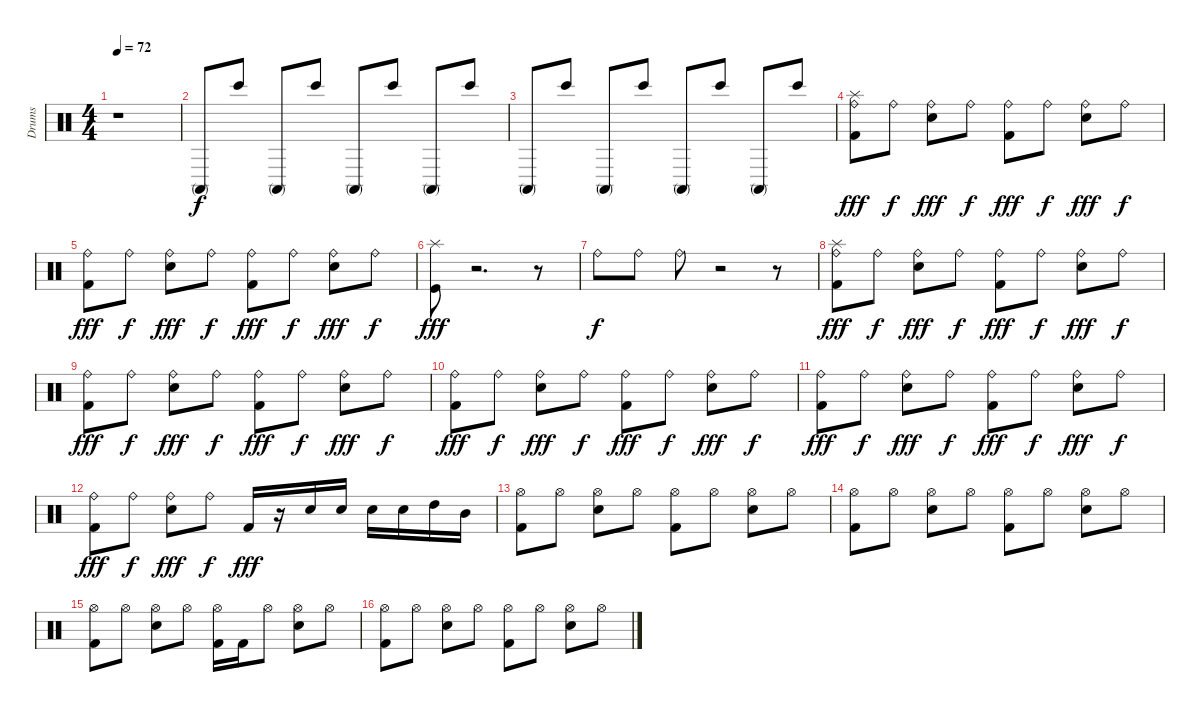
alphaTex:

\track ("Drums" "Drums") {instrument percussion}
\staff {score}
\articulation defaults
\ts (4 4)
\tempo 72
\clef neutral
\ks c
r.1{dy f} |
"Conga high (mute)".8 "Bongo High (hit)".8 "Conga high (mute)".8 "Bongo High (hit)".8 "Conga high (mute)".8 "Bongo High (hit)".8 "Conga high (mute)".8 "Bongo High (hit)".8 |
"Conga high (mute)".8 "Bongo High (hit)".8 "Conga high (mute)".8 "Bongo High (hit)".8 "Conga high (mute)".8 "Bongo High (hit)".8 "Conga high (mute)".8{volume 5} "Bongo High (hit)".8{volume 12} |
("Ride (bell)" "Splash (hit)" "Kick (hit) 2").8{dy fff volume 16} "Ride (bell)".8{dy f} ("Ride (bell)" "Snare (hit) 2").8{dy fff} "Ride (bell)".8{dy f} ("Ride (bell)" "Kick (hit) 2").8{dy fff} "Ride (bell)".8{dy f} ("Ride (bell)" "Snare (hit) 2").8{dy fff} "Ride (bell)".8{dy f} |
("Ride (bell)" "Kick (hit) 2").8{dy fff} "Ride (bell)".8{dy f} ("Ride (bell)" "Snare (hit) 2").8{dy fff} "Ride (bell)".8{dy f} ("Ride (bell)" "Kick (hit) 2").8{dy fff} "Ride (bell)".8{dy f} ("Ride (bell)" "Snare (hit) 2").8{dy fff} "Ride (bell)".8{dy f} |
("Splash (hit)" "Kick (hit)").8{dy fff} r.2{d} r.8 |
"Ride (bell)".8{dy f} "Ride (bell)".8 "Ride (bell)".8 r.2 r.8 |
("Splash (hit)" "Ride (bell)" "Kick (hit) 2").8{dy fff} "Ride (bell)".8{dy f} ("Ride (bell)" "Snare (hit) 2").8{dy fff} "Ride (bell)".8{dy f} ("Ride (bell)" "Kick (hit) 2").8{dy fff} "Ride (bell)".8{dy f} ("Ride (bell)" "Snare (hit) 2").8{dy fff} "Ride (bell)".8{dy f} |
("Ride (bell)" "Kick (hit) 2").8{dy fff} "Ride (bell)".8{dy f} ("Ride (bell)" "Snare (hit) 2").8{dy fff} "Ride (bell)".8{dy f} ("Ride (bell)" "Kick (hit) 2").8{dy fff} "Ride (bell)".8{dy f} ("Ride (bell)" "Snare (hit) 2").8{dy fff} "Ride (bell)".8{dy f} |
("Ride (bell)" "Kick (hit) 2").8{dy fff} "Ride (bell)".8{dy f} ("Ride (bell)" "Snare (hit) 2").8{dy fff} "Ride (bell)".8{dy f} ("Ride (bell)" "Kick (hit) 2").8{dy fff} "Ride (bell)".8{dy f} ("Ride (bell)" "Snare (hit) 2").8{dy fff} "Ride (bell)".8{dy f} |
("Ride (bell)" "Kick (hit) 2").8{dy fff} "Ride (bell)".8{dy f} ("Ride (bell)" "Snare (hit) 2").8{dy fff} "Ride (bell)".8{dy f} ("Ride (bell)" "Kick (hit) 2").8{dy fff} "Ride (bell)".8{dy f} ("Ride (bell)" "Electric Snare (hit)").8{dy fff} "Ride (bell)".8{dy f} |
("Ride (bell)" "Kick (hit) 2").8{dy fff} "Ride (bell)".8{dy f} ("Ride (bell)" "Electric Snare (hit)").8{dy fff} "Ride (bell)".8{dy f} "Kick (hit) 2".16{dy fff} r.16 "Snare (hit) 2".16{volume 5} "Electric Snare (hit)".16{volume 7} "Electric Snare (hit)".16{volume 10} "Electric Snare (hit)".16{volume 12} "High Tom (hit)".16{volume 12} "Mid Tom (hit)".16 |
("Hi-Hat (open)" "Kick (hit) 2").8{volume 16} "Hi-Hat (open)".8 ("Hi-Hat (open)" "Snare (hit) 2").8 "Hi-Hat (open)".8 ("Hi-Hat (open)" "Kick (hit) 2").8 "Hi-Hat (open)".8 ("Hi-Hat (open)" "Snare (hit) 2").8 "Hi-Hat (open)".8 |
("Hi-Hat (open)" "Kick (hit) 2").8 "Hi-Hat (open)".8 ("Hi-Hat (open)" "Snare (hit) 2").8 "Hi-Hat (open)".8 ("Hi-Hat (open)" "Kick (hit) 2").8 "Hi-Hat (open)".8 ("Hi-Hat (open)" "Snare (hit) 2").8 "Hi-Hat (open)".8 |
("Hi-Hat (open)" "Kick (hit) 2").8 "Hi-Hat (open)".8 ("Hi-Hat (open)" "Snare (hit) 2").8 "Hi-Hat (open)".8 ("Kick (hit) 2" "Hi-Hat (open)").16 "Kick (hit) 2".16 "Hi-Hat (open)".8 ("Hi-Hat (open)" "Snare (hit) 2").8 "Hi-Hat (open)".8 |
("Hi-Hat (open)" "Kick (hit) 2").8 "Hi-Hat (open)".8 ("Hi-Hat (open)" "Snare (hit) 2").8 "Hi-Hat (open)".8 ("Hi-Hat (open)" "Kick (hit) 2").8 "Hi-Hat (open)".8 ("Hi-Hat (open)" "Snare (hit) 2").8 "Hi-Hat (open)".8
